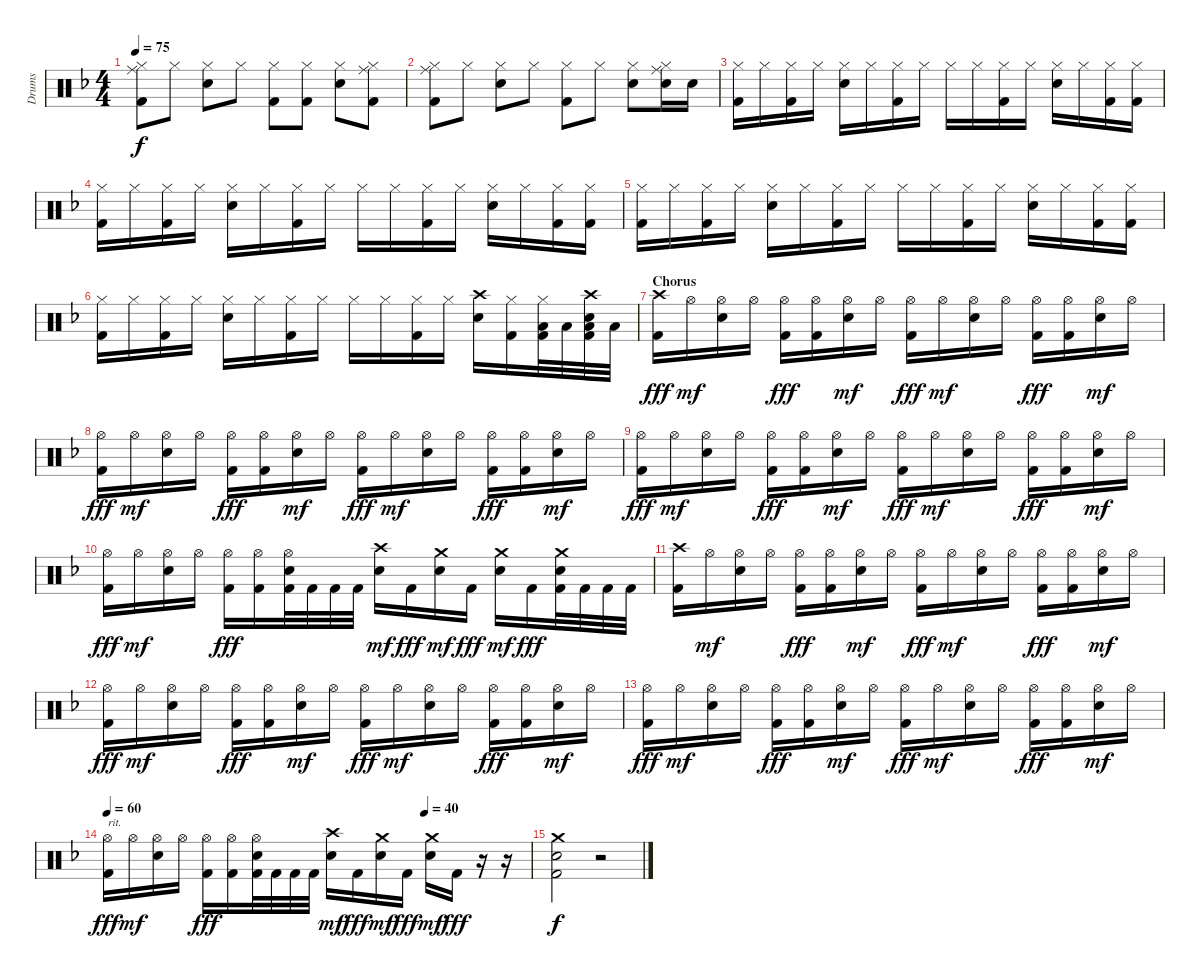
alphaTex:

\track ("Drums" "Drums") {instrument percussion}
\staff {score}
\articulation defaults
\ts (4 4)
\tempo 75
\clef neutral
\ks dminor
("Hi-Hat (closed)" "Ride (middle)" "Kick (hit) 2").8{dy f} "Hi-Hat (closed)".8 ("Hi-Hat (closed)" "Snare (hit) 2").8 "Hi-Hat (closed)".8 ("Hi-Hat (closed)" "Kick (hit) 2").8 ("Hi-Hat (closed)" "Kick (hit) 2").8 ("Hi-Hat (closed)" "Snare (hit) 2").8 ("Hi-Hat (closed)" "Ride (middle)" "Kick (hit) 2").8 |
("Hi-Hat (closed)" "Ride (middle)" "Kick (hit) 2").8 "Hi-Hat (closed)".8 ("Hi-Hat (closed)" "Snare (hit) 2").8 "Hi-Hat (closed)".8 ("Hi-Hat (closed)" "Kick (hit) 2").8 "Hi-Hat (closed)".8 ("Hi-Hat (closed)" "Snare (hit) 2").8 ("Hi-Hat (closed)" "Ride (middle)" "Snare (hit) 2").16 "Snare (hit) 2".16 |
("Hi-Hat (closed)" "Kick (hit) 2").16 "Hi-Hat (closed)".16 ("Hi-Hat (closed)" "Kick (hit) 2").16 "Hi-Hat (closed)".16 ("Hi-Hat (closed)" "Snare (hit) 2").16 "Hi-Hat (closed)".16 ("Hi-Hat (closed)" "Kick (hit) 2").16 "Hi-Hat (closed)".16 "Hi-Hat (closed)".16 "Hi-Hat (closed)".16 ("Hi-Hat (closed)" "Kick (hit) 2").16 "Hi-Hat (closed)".16 ("Hi-Hat (closed)" "Snare (hit) 2").16 "Hi-Hat (closed)".16 ("Hi-Hat (closed)" "Kick (hit) 2").16 ("Hi-Hat (closed)" "Kick (hit) 2").16 |
("Hi-Hat (closed)" "Kick (hit) 2").16 "Hi-Hat (closed)".16 ("Hi-Hat (closed)" "Kick (hit) 2").16 "Hi-Hat (closed)".16 ("Hi-Hat (closed)" "Snare (hit) 2").16 "Hi-Hat (closed)".16 ("Hi-Hat (closed)" "Kick (hit) 2").16 "Hi-Hat (closed)".16 "Hi-Hat (closed)".16 "Hi-Hat (closed)".16 ("Hi-Hat (closed)" "Kick (hit) 2").16 "Hi-Hat (closed)".16 ("Hi-Hat (closed)" "Snare (hit) 2").16 "Hi-Hat (closed)".16 ("Hi-Hat (closed)" "Kick (hit) 2").16 ("Hi-Hat (closed)" "Kick (hit) 2").16 |
("Hi-Hat (closed)" "Kick (hit) 2").16 "Hi-Hat (closed)".16 ("Hi-Hat (closed)" "Kick (hit) 2").16 "Hi-Hat (closed)".16 ("Hi-Hat (closed)" "Snare (hit) 2").16 "Hi-Hat (closed)".16 ("Hi-Hat (closed)" "Kick (hit) 2").16 "Hi-Hat (closed)".16 "Hi-Hat (closed)".16 "Hi-Hat (closed)".16 ("Hi-Hat (closed)" "Kick (hit) 2").16 "Hi-Hat (closed)".16 ("Hi-Hat (closed)" "Snare (hit) 2").16 "Hi-Hat (closed)".16 ("Hi-Hat (closed)" "Kick (hit) 2").16 ("Hi-Hat (closed)" "Kick (hit) 2").16 |
("Hi-Hat (closed)" "Kick (hit) 2").16 "Hi-Hat (closed)".16 ("Hi-Hat (closed)" "Kick (hit) 2").16 "Hi-Hat (closed)".16 ("Hi-Hat (closed)" "Snare (hit) 2").16 "Hi-Hat (closed)".16 ("Hi-Hat (closed)" "Kick (hit) 2").16 "Hi-Hat (closed)".16 "Hi-Hat (closed)".16 "Hi-Hat (closed)".16 ("Hi-Hat (closed)" "Kick (hit) 2").16 "Hi-Hat (closed)".16 ("Crash high (hit)" "Snare (hit) 2").16 ("Hi-Hat (closed)" "Kick (hit) 2").16 ("Hi-Hat (closed)" "Kick (hit) 2" "Low Tom (hit)").32 "Low Tom (hit)".32 ("Crash high (hit)" "Snare (hit) 2" "Low Floor Tom (hit)" "Kick (hit) 2").32 "Low Floor Tom (hit)".32 |
\section ("" "Chorus")
("Crash high (hit)" "Kick (hit) 2").16{dy fff} "Hi-Hat (open)".16{dy mf} ("Hi-Hat (open)" "Snare (hit) 2").16 "Hi-Hat (open)".16 ("Hi-Hat (open)" "Kick (hit) 2").16{dy fff} ("Hi-Hat (open)" "Kick (hit) 2").16 ("Hi-Hat (open)" "Snare (hit) 2").16{dy mf} "Hi-Hat (open)".16 ("Hi-Hat (open)" "Kick (hit) 2").16{dy fff} "Hi-Hat (open)".16{dy mf} ("Hi-Hat (open)" "Snare (hit) 2").16 "Hi-Hat (open)".16 ("Hi-Hat (open)" "Kick (hit) 2").16{dy fff} ("Hi-Hat (open)" "Kick (hit) 2").16 ("Hi-Hat (open)" "Snare (hit) 2").16{dy mf} "Hi-Hat (open)".16 |
("Hi-Hat (open)" "Kick (hit) 2").16{dy fff} "Hi-Hat (open)".16{dy mf} ("Hi-Hat (open)" "Snare (hit) 2").16 "Hi-Hat (open)".16 ("Hi-Hat (open)" "Kick (hit) 2").16{dy fff} ("Hi-Hat (open)" "Kick (hit) 2").16 ("Hi-Hat (open)" "Snare (hit) 2").16{dy mf} "Hi-Hat (open)".16 ("Hi-Hat (open)" "Kick (hit) 2").16{dy fff} "Hi-Hat (open)".16{dy mf} ("Hi-Hat (open)" "Snare (hit) 2").16 "Hi-Hat (open)".16 ("Hi-Hat (open)" "Kick (hit) 2").16{dy fff} ("Hi-Hat (open)" "Kick (hit) 2").16 ("Hi-Hat (open)" "Snare (hit) 2").16{dy mf} "Hi-Hat (open)".16 |
("Hi-Hat (open)" "Kick (hit) 2").16{dy fff} "Hi-Hat (open)".16{dy mf} ("Hi-Hat (open)" "Snare (hit) 2").16 "Hi-Hat (open)".16 ("Hi-Hat (open)" "Kick (hit) 2").16{dy fff} ("Hi-Hat (open)" "Kick (hit) 2").16 ("Hi-Hat (open)" "Snare (hit) 2").16{dy mf} "Hi-Hat (open)".16 ("Hi-Hat (open)" "Kick (hit) 2").16{dy fff} "Hi-Hat (open)".16{dy mf} ("Hi-Hat (open)" "Snare (hit) 2").16 "Hi-Hat (open)".16 ("Hi-Hat (open)" "Kick (hit) 2").16{dy fff} ("Hi-Hat (open)" "Kick (hit) 2").16 ("Hi-Hat (open)" "Snare (hit) 2").16{dy mf} "Hi-Hat (open)".16 |
("Hi-Hat (open)" "Kick (hit) 2").16{dy fff} "Hi-Hat (open)".16{dy mf} ("Hi-Hat (open)" "Snare (hit) 2").16 "Hi-Hat (open)".16 ("Hi-Hat (open)" "Kick (hit) 2").16{dy fff} ("Hi-Hat (open)" "Kick (hit) 2").16 ("Hi-Hat (open)" "Snare (hit) 2" "Kick (hit) 2").32 "Kick (hit) 2".32 "Kick (hit) 2".32 "Kick (hit) 2".32 ("Crash high (hit)" "Snare (hit) 2").16{dy mf} "Kick (hit) 2".16{dy fff} ("Crash medium (hit)" "Snare (hit) 2").16{dy mf} "Kick (hit) 2".16{dy fff} ("Crash medium (hit)" "Snare (hit) 2").16{dy mf} "Kick (hit) 2".16{dy fff} ("Crash medium (hit)" "Snare (hit) 2" "Kick (hit) 2").32 "Kick (hit) 2".32 "Kick (hit) 2".32 "Kick (hit) 2".32 |
("Crash high (hit)" "Kick (hit) 2").16 "Hi-Hat (open)".16{dy mf} ("Hi-Hat (open)" "Snare (hit) 2").16 "Hi-Hat (open)".16 ("Hi-Hat (open)" "Kick (hit) 2").16{dy fff} ("Hi-Hat (open)" "Kick (hit) 2").16 ("Hi-Hat (open)" "Snare (hit) 2").16{dy mf} "Hi-Hat (open)".16 ("Hi-Hat (open)" "Kick (hit) 2").16{dy fff} "Hi-Hat (open)".16{dy mf} ("Hi-Hat (open)" "Snare (hit) 2").16 "Hi-Hat (open)".16 ("Hi-Hat (open)" "Kick (hit) 2").16{dy fff} ("Hi-Hat (open)" "Kick (hit) 2").16 ("Hi-Hat (open)" "Snare (hit) 2").16{dy mf} "Hi-Hat (open)".16 |
("Hi-Hat (open)" "Kick (hit) 2").16{dy fff} "Hi-Hat (open)".16{dy mf} ("Hi-Hat (open)" "Snare (hit) 2").16 "Hi-Hat (open)".16 ("Hi-Hat (open)" "Kick (hit) 2").16{dy fff} ("Hi-Hat (open)" "Kick (hit) 2").16 ("Hi-Hat (open)" "Snare (hit) 2").16{dy mf} "Hi-Hat (open)".16 ("Hi-Hat (open)" "Kick (hit) 2").16{dy fff} "Hi-Hat (open)".16{dy mf} ("Hi-Hat (open)" "Snare (hit) 2").16 "Hi-Hat (open)".16 ("Hi-Hat (open)" "Kick (hit) 2").16{dy fff} ("Hi-Hat (open)" "Kick (hit) 2").16 ("Hi-Hat (open)" "Snare (hit) 2").16{dy mf} "Hi-Hat (open)".16 |
("Hi-Hat (open)" "Kick (hit) 2").16{dy fff} "Hi-Hat (open)".16{dy mf} ("Hi-Hat (open)" "Snare (hit) 2").16 "Hi-Hat (open)".16 ("Hi-Hat (open)" "Kick (hit) 2").16{dy fff} ("Hi-Hat (open)" "Kick (hit) 2").16 ("Hi-Hat (open)" "Snare (hit) 2").16{dy mf} "Hi-Hat (open)".16 ("Hi-Hat (open)" "Kick (hit) 2").16{dy fff} "Hi-Hat (open)".16{dy mf} ("Hi-Hat (open)" "Snare (hit) 2").16 "Hi-Hat (open)".16 ("Hi-Hat (open)" "Kick (hit) 2").16{dy fff} ("Hi-Hat (open)" "Kick (hit) 2").16 ("Hi-Hat (open)" "Snare (hit) 2").16{dy mf} "Hi-Hat (open)".16 |
\tempo 60
\tempo (40 0.75)
("Hi-Hat (open)" "Kick (hit) 2").16{txt "rit." dy fff} "Hi-Hat (open)".16{dy mf} ("Hi-Hat (open)" "Snare (hit) 2").16 "Hi-Hat (open)".16 ("Hi-Hat (open)" "Kick (hit) 2").16{dy fff} ("Hi-Hat (open)" "Kick (hit) 2").16 ("Hi-Hat (open)" "Snare (hit) 2" "Kick (hit) 2").32 "Kick (hit) 2".32 "Kick (hit) 2".32 "Kick (hit) 2".32 ("Crash high (hit)" "Snare (hit) 2").16{dy mf} "Kick (hit) 2".16{dy fff} ("Crash medium (hit)" "Snare (hit) 2").16{dy mf} "Kick (hit) 2".16{dy fff} ("Crash medium (hit)" "Snare (hit) 2").16{dy mf} "Kick (hit) 2".16{dy fff} r.16 r.16 |
("Crash medium (hit)" "Snare (hit) 2" "Kick (hit) 2").2{dy f} r.2
